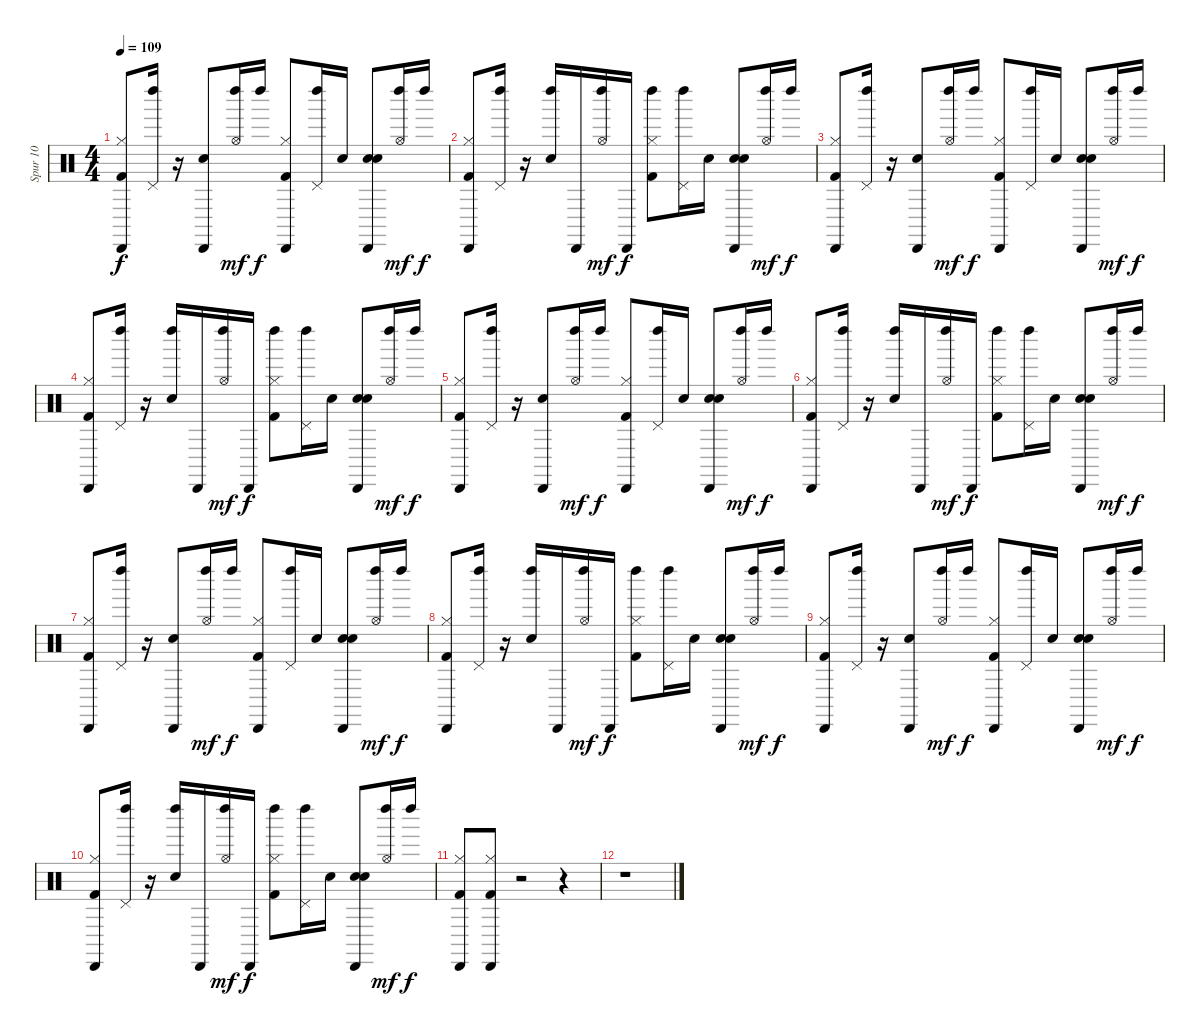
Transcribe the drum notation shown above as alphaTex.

\track ("Spur 10" "Spur 10") {instrument percussion}
\staff {score}
\articulation defaults
\ts (4 4)
\tempo 109
\clef neutral
\ks c
("Kick (hit) 2" "Hi-Hat (closed)" "Cabasa (hit)").8{dy f} ("Left Maraca (hit)" "Pedal Hi-Hat (hit)").16 r.16 ("Snare (hit) 2" "Cabasa (hit)").8 ("Left Maraca (hit)" "Hi-Hat (open)").16{dy mf} "Left Maraca (hit)".16{dy f} ("Kick (hit) 2" "Cabasa (hit)" "Hi-Hat (closed)").8 ("Pedal Hi-Hat (hit)" "Left Maraca (hit)").16 "Electric Snare (hit)".16 ("Electric Snare (hit)" "Snare (hit) 2" "Cabasa (hit)").8 ("Left Maraca (hit)" "Hi-Hat (open)").16{dy mf} "Left Maraca (hit)".16{dy f} |
("Kick (hit) 2" "Hi-Hat (closed)" "Cabasa (hit)").8 ("Pedal Hi-Hat (hit)" "Left Maraca (hit)").16 r.16 ("Snare (hit) 2" "Left Maraca (hit)").16 "Cabasa (hit)".16 ("Hi-Hat (open)" "Left Maraca (hit)").16{dy mf} "Cabasa (hit)".16{dy f} ("Kick (hit) 2" "Left Maraca (hit)" "Hi-Hat (closed)").8 ("Left Maraca (hit)" "Pedal Hi-Hat (hit)").16 "Electric Snare (hit)".16 ("Electric Snare (hit)" "Snare (hit) 2" "Cabasa (hit)").8 ("Left Maraca (hit)" "Hi-Hat (open)").16{dy mf} "Left Maraca (hit)".16{dy f} |
("Kick (hit) 2" "Hi-Hat (closed)" "Cabasa (hit)").8 ("Left Maraca (hit)" "Pedal Hi-Hat (hit)").16 r.16 ("Snare (hit) 2" "Cabasa (hit)").8 ("Left Maraca (hit)" "Hi-Hat (open)").16{dy mf} "Left Maraca (hit)".16{dy f} ("Kick (hit) 2" "Cabasa (hit)" "Hi-Hat (closed)").8 ("Pedal Hi-Hat (hit)" "Left Maraca (hit)").16 "Electric Snare (hit)".16 ("Electric Snare (hit)" "Snare (hit) 2" "Cabasa (hit)").8 ("Left Maraca (hit)" "Hi-Hat (open)").16{dy mf} "Left Maraca (hit)".16{dy f} |
("Kick (hit) 2" "Hi-Hat (closed)" "Cabasa (hit)").8 ("Pedal Hi-Hat (hit)" "Left Maraca (hit)").16 r.16 ("Snare (hit) 2" "Left Maraca (hit)").16 "Cabasa (hit)".16 ("Hi-Hat (open)" "Left Maraca (hit)").16{dy mf} "Cabasa (hit)".16{dy f} ("Kick (hit) 2" "Left Maraca (hit)" "Hi-Hat (closed)").8 ("Left Maraca (hit)" "Pedal Hi-Hat (hit)").16 "Electric Snare (hit)".16 ("Snare (hit) 2" "Electric Snare (hit)" "Cabasa (hit)").8 ("Left Maraca (hit)" "Hi-Hat (open)").16{dy mf} "Left Maraca (hit)".16{dy f} |
("Kick (hit) 2" "Hi-Hat (closed)" "Cabasa (hit)").8 ("Left Maraca (hit)" "Pedal Hi-Hat (hit)").16 r.16 ("Snare (hit) 2" "Cabasa (hit)").8 ("Left Maraca (hit)" "Hi-Hat (open)").16{dy mf} "Left Maraca (hit)".16{dy f} ("Kick (hit) 2" "Cabasa (hit)" "Hi-Hat (closed)").8 ("Pedal Hi-Hat (hit)" "Left Maraca (hit)").16 "Electric Snare (hit)".16 ("Snare (hit) 2" "Electric Snare (hit)" "Cabasa (hit)").8 ("Left Maraca (hit)" "Hi-Hat (open)").16{dy mf} "Left Maraca (hit)".16{dy f} |
("Kick (hit) 2" "Hi-Hat (closed)" "Cabasa (hit)").8 ("Pedal Hi-Hat (hit)" "Left Maraca (hit)").16 r.16 ("Snare (hit) 2" "Left Maraca (hit)").16 "Cabasa (hit)".16 ("Hi-Hat (open)" "Left Maraca (hit)").16{dy mf} "Cabasa (hit)".16{dy f} ("Kick (hit) 2" "Left Maraca (hit)" "Hi-Hat (closed)").8 ("Left Maraca (hit)" "Pedal Hi-Hat (hit)").16 "Electric Snare (hit)".16 ("Electric Snare (hit)" "Snare (hit) 2" "Cabasa (hit)").8 ("Left Maraca (hit)" "Hi-Hat (open)").16{dy mf} "Left Maraca (hit)".16{dy f} |
("Kick (hit) 2" "Hi-Hat (closed)" "Cabasa (hit)").8 ("Left Maraca (hit)" "Pedal Hi-Hat (hit)").16 r.16 ("Snare (hit) 2" "Cabasa (hit)").8 ("Left Maraca (hit)" "Hi-Hat (open)").16{dy mf} "Left Maraca (hit)".16{dy f} ("Kick (hit) 2" "Cabasa (hit)" "Hi-Hat (closed)").8 ("Pedal Hi-Hat (hit)" "Left Maraca (hit)").16 "Electric Snare (hit)".16 ("Electric Snare (hit)" "Snare (hit) 2" "Cabasa (hit)").8 ("Left Maraca (hit)" "Hi-Hat (open)").16{dy mf} "Left Maraca (hit)".16{dy f} |
("Kick (hit) 2" "Hi-Hat (closed)" "Cabasa (hit)").8 ("Pedal Hi-Hat (hit)" "Left Maraca (hit)").16 r.16 ("Snare (hit) 2" "Left Maraca (hit)").16 "Cabasa (hit)".16 ("Hi-Hat (open)" "Left Maraca (hit)").16{dy mf} "Cabasa (hit)".16{dy f} ("Kick (hit) 2" "Left Maraca (hit)" "Hi-Hat (closed)").8 ("Left Maraca (hit)" "Pedal Hi-Hat (hit)").16 "Electric Snare (hit)".16 ("Electric Snare (hit)" "Snare (hit) 2" "Cabasa (hit)").8 ("Left Maraca (hit)" "Hi-Hat (open)").16{dy mf} "Left Maraca (hit)".16{dy f} |
("Kick (hit) 2" "Hi-Hat (closed)" "Cabasa (hit)").8 ("Left Maraca (hit)" "Pedal Hi-Hat (hit)").16 r.16 ("Snare (hit) 2" "Cabasa (hit)").8 ("Left Maraca (hit)" "Hi-Hat (open)").16{dy mf} "Left Maraca (hit)".16{dy f} ("Kick (hit) 2" "Cabasa (hit)" "Hi-Hat (closed)").8 ("Pedal Hi-Hat (hit)" "Left Maraca (hit)").16 "Electric Snare (hit)".16 ("Electric Snare (hit)" "Snare (hit) 2" "Cabasa (hit)").8 ("Left Maraca (hit)" "Hi-Hat (open)").16{dy mf} "Left Maraca (hit)".16{dy f} |
("Kick (hit) 2" "Hi-Hat (closed)" "Cabasa (hit)").8 ("Pedal Hi-Hat (hit)" "Left Maraca (hit)").16 r.16 ("Snare (hit) 2" "Left Maraca (hit)").16 "Cabasa (hit)".16 ("Hi-Hat (open)" "Left Maraca (hit)").16{dy mf} "Cabasa (hit)".16{dy f} ("Kick (hit) 2" "Left Maraca (hit)" "Hi-Hat (closed)").8 ("Pedal Hi-Hat (hit)" "Left Maraca (hit)").16 "Electric Snare (hit)".16 ("Snare (hit) 2" "Electric Snare (hit)" "Cabasa (hit)").8 ("Hi-Hat (open)" "Left Maraca (hit)").16{dy mf} "Left Maraca (hit)".16{dy f} |
("Kick (hit) 2" "Cabasa (hit)" "Hi-Hat (closed)").8 ("Kick (hit) 2" "Hi-Hat (closed)" "Cabasa (hit)").8 r.2 r.4 |
r.1
